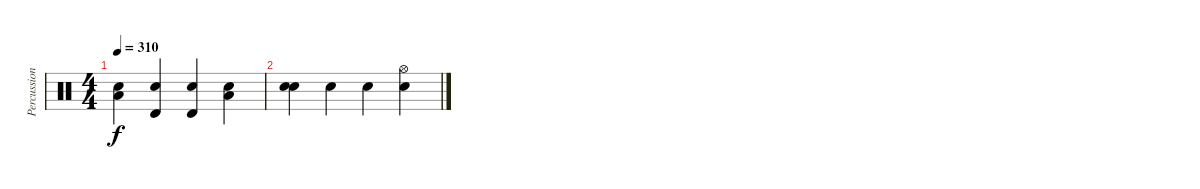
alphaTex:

\track ("Percussion" "Percussion") {instrument percussion}
\staff {score}
\articulation defaults
\ts (4 4)
\tempo 310
\clef neutral
\ks c
("Low Floor Tom (hit)" "Snare (hit)").4{dy f} ("Timbale high (hit)" "Snare (hit)").4 ("Snare (hit)" "Timbale high (hit)").4 ("Low Floor Tom (hit)" "Snare (hit)").4 |
("Snare (hit)" "Snare (hit)").4 "Snare (hit)".4 "Snare (hit)".4 ("Snare (hit)" "Hi-Hat (open)").4
